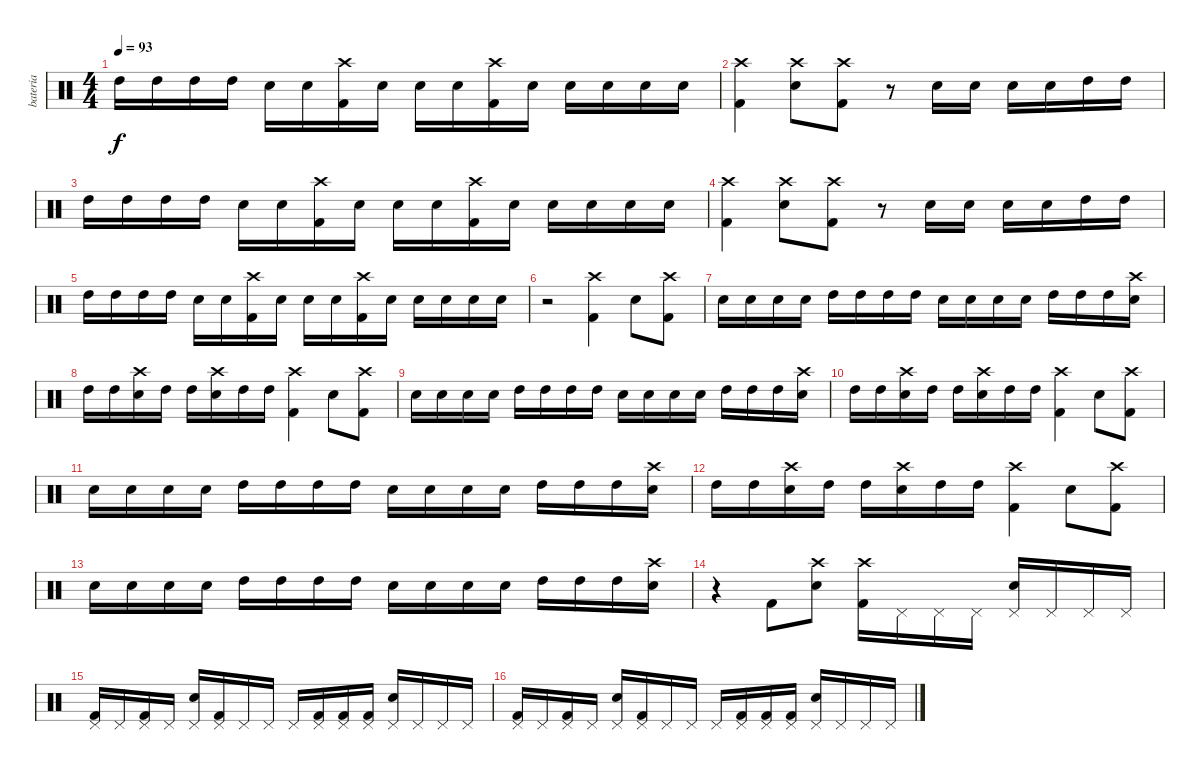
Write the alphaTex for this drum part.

\track ("bateria" "bateria") {instrument percussion}
\staff {score}
\articulation defaults
\ts (4 4)
\tempo 93
\clef neutral
\ks c "High Tom (hit)".16{dy f} "High Tom (hit)".16 "High Tom (hit)".16 "High Tom (hit)".16 "Snare (hit) 2".16 "Snare (hit) 2".16
("Kick (hit) 2" "Crash high (hit)").16 "Snare (hit) 2".16 "Snare (hit) 2".16 "Snare (hit) 2".16 ("Kick (hit) 2" "Crash high (hit)").16 "Snare (hit) 2".16 "Snare (hit) 2".16 "Snare (hit) 2".16 "Snare (hit) 2".16 "Snare (hit) 2".16 |
("Kick (hit) 2" "Crash high (hit)").4 ("Crash high (hit)" "Snare (hit) 2").8 ("Kick (hit) 2" "Crash high (hit)").8 r.8 "Snare (hit) 2".16 "Snare (hit) 2".16 "Snare (hit) 2".16 "Snare (hit) 2".16 "High Tom (hit)".16 "High Tom (hit)".16 |
"High Tom (hit)".16 "High Tom (hit)".16 "High Tom (hit)".16 "High Tom (hit)".16 "Snare (hit) 2".16 "Snare (hit) 2".16 ("Kick (hit) 2" "Crash high (hit)").16 "Snare (hit) 2".16 "Snare (hit) 2".16 "Snare (hit) 2".16 ("Kick (hit) 2" "Crash high (hit)").16 "Snare (hit) 2".16 "Snare (hit) 2".16 "Snare (hit) 2".16 "Snare (hit) 2".16 "Snare (hit) 2".16 |
("Kick (hit) 2" "Crash high (hit)").4 ("Crash high (hit)" "Snare (hit) 2").8 ("Kick (hit) 2" "Crash high (hit)").8 r.8 "Snare (hit) 2".16 "Snare (hit) 2".16 "Snare (hit) 2".16 "Snare (hit) 2".16 "High Tom (hit)".16 "High Tom (hit)".16 |
"High Tom (hit)".16 "High Tom (hit)".16 "High Tom (hit)".16 "High Tom (hit)".16 "Snare (hit) 2".16 "Snare (hit) 2".16 ("Kick (hit) 2" "Crash high (hit)").16 "Snare (hit) 2".16 "Snare (hit) 2".16 "Snare (hit) 2".16 ("Kick (hit) 2" "Crash high (hit)").16 "Snare (hit) 2".16 "Snare (hit) 2".16 "Snare (hit) 2".16 "Snare (hit) 2".16 "Snare (hit) 2".16 |
r.2 ("Crash high (hit)" "Kick (hit) 2").4 "Snare (hit) 2".8 ("Crash high (hit)" "Kick (hit) 2").8 |
"Snare (hit) 2".16 "Snare (hit) 2".16 "Snare (hit) 2".16 "Snare (hit) 2".16 "High Tom (hit)".16 "High Tom (hit)".16 "High Tom (hit)".16 "High Tom (hit)".16 "Snare (hit) 2".16 "Snare (hit) 2".16 "Snare (hit) 2".16 "Snare (hit) 2".16 "High Tom (hit)".16 "High Tom (hit)".16 "High Tom (hit)".16 ("Snare (hit) 2" "Crash high (hit)").16 |
"High Tom (hit)".16 "High Tom (hit)".16 ("Snare (hit) 2" "Crash high (hit)").16 "High Tom (hit)".16 "High Tom (hit)".16 ("Snare (hit) 2" "Crash high (hit)").16 "High Tom (hit)".16 "High Tom (hit)".16 ("Crash high (hit)" "Kick (hit) 2").4 "Snare (hit) 2".8 ("Crash high (hit)" "Kick (hit) 2").8 |
"Snare (hit) 2".16 "Snare (hit) 2".16 "Snare (hit) 2".16 "Snare (hit) 2".16 "High Tom (hit)".16 "High Tom (hit)".16 "High Tom (hit)".16 "High Tom (hit)".16 "Snare (hit) 2".16 "Snare (hit) 2".16 "Snare (hit) 2".16 "Snare (hit) 2".16 "High Tom (hit)".16 "High Tom (hit)".16 "High Tom (hit)".16 ("Snare (hit) 2" "Crash high (hit)").16 |
"High Tom (hit)".16 "High Tom (hit)".16 ("Snare (hit) 2" "Crash high (hit)").16 "High Tom (hit)".16 "High Tom (hit)".16 ("Snare (hit) 2" "Crash high (hit)").16 "High Tom (hit)".16 "High Tom (hit)".16 ("Crash high (hit)" "Kick (hit) 2").4 "Snare (hit) 2".8 ("Crash high (hit)" "Kick (hit) 2").8 |
"Snare (hit) 2".16 "Snare (hit) 2".16 "Snare (hit) 2".16 "Snare (hit) 2".16 "High Tom (hit)".16 "High Tom (hit)".16 "High Tom (hit)".16 "High Tom (hit)".16 "Snare (hit) 2".16 "Snare (hit) 2".16 "Snare (hit) 2".16 "Snare (hit) 2".16 "High Tom (hit)".16 "High Tom (hit)".16 "High Tom (hit)".16 ("Snare (hit) 2" "Crash high (hit)").16 |
"High Tom (hit)".16 "High Tom (hit)".16 ("Snare (hit) 2" "Crash high (hit)").16 "High Tom (hit)".16 "High Tom (hit)".16 ("Snare (hit) 2" "Crash high (hit)").16 "High Tom (hit)".16 "High Tom (hit)".16 ("Crash high (hit)" "Kick (hit) 2").4 "Snare (hit) 2".8 ("Crash high (hit)" "Kick (hit) 2").8 |
"Snare (hit) 2".16 "Snare (hit) 2".16 "Snare (hit) 2".16 "Snare (hit) 2".16 "High Tom (hit)".16 "High Tom (hit)".16 "High Tom (hit)".16 "High Tom (hit)".16 "Snare (hit) 2".16 "Snare (hit) 2".16 "Snare (hit) 2".16 "Snare (hit) 2".16 "High Tom (hit)".16 "High Tom (hit)".16 "High Tom (hit)".16 ("Snare (hit) 2" "Crash high (hit)").16 |
r.4 "Kick (hit) 2".8 ("Snare (hit) 2" "Crash high (hit)").8 ("Kick (hit) 2" "Crash high (hit)").16 "Pedal Hi-Hat (hit)".16 "Pedal Hi-Hat (hit)".16 "Pedal Hi-Hat (hit)".16 ("Snare (hit) 2" "Pedal Hi-Hat (hit)").16 "Pedal Hi-Hat (hit)".16 "Pedal Hi-Hat (hit)".16 "Pedal Hi-Hat (hit)".16 |
("Kick (hit) 2" "Pedal Hi-Hat (hit)").16 "Pedal Hi-Hat (hit)".16 ("Kick (hit) 2" "Pedal Hi-Hat (hit)").16 "Pedal Hi-Hat (hit)".16 ("Snare (hit) 2" "Pedal Hi-Hat (hit)").16 ("Kick (hit) 2" "Pedal Hi-Hat (hit)").16 "Pedal Hi-Hat (hit)".16 "Pedal Hi-Hat (hit)".16 "Pedal Hi-Hat (hit)".16 ("Kick (hit) 2" "Pedal Hi-Hat (hit)").16 ("Kick (hit) 2" "Pedal Hi-Hat (hit)").16 ("Kick (hit) 2" "Pedal Hi-Hat (hit)").16 ("Snare (hit) 2" "Pedal Hi-Hat (hit)").16 "Pedal Hi-Hat (hit)".16 "Pedal Hi-Hat (hit)".16 "Pedal Hi-Hat (hit)".16 |
("Kick (hit) 2" "Pedal Hi-Hat (hit)").16 "Pedal Hi-Hat (hit)".16 ("Kick (hit) 2" "Pedal Hi-Hat (hit)").16 "Pedal Hi-Hat (hit)".16 ("Snare (hit) 2" "Pedal Hi-Hat (hit)").16 ("Kick (hit) 2" "Pedal Hi-Hat (hit)").16 "Pedal Hi-Hat (hit)".16 "Pedal Hi-Hat (hit)".16 "Pedal Hi-Hat (hit)".16 ("Kick (hit) 2" "Pedal Hi-Hat (hit)").16 ("Kick (hit) 2" "Pedal Hi-Hat (hit)").16 ("Kick (hit) 2" "Pedal Hi-Hat (hit)").16 ("Snare (hit) 2" "Pedal Hi-Hat (hit)").16 "Pedal Hi-Hat (hit)".16 "Pedal Hi-Hat (hit)".16 "Pedal Hi-Hat (hit)".16
